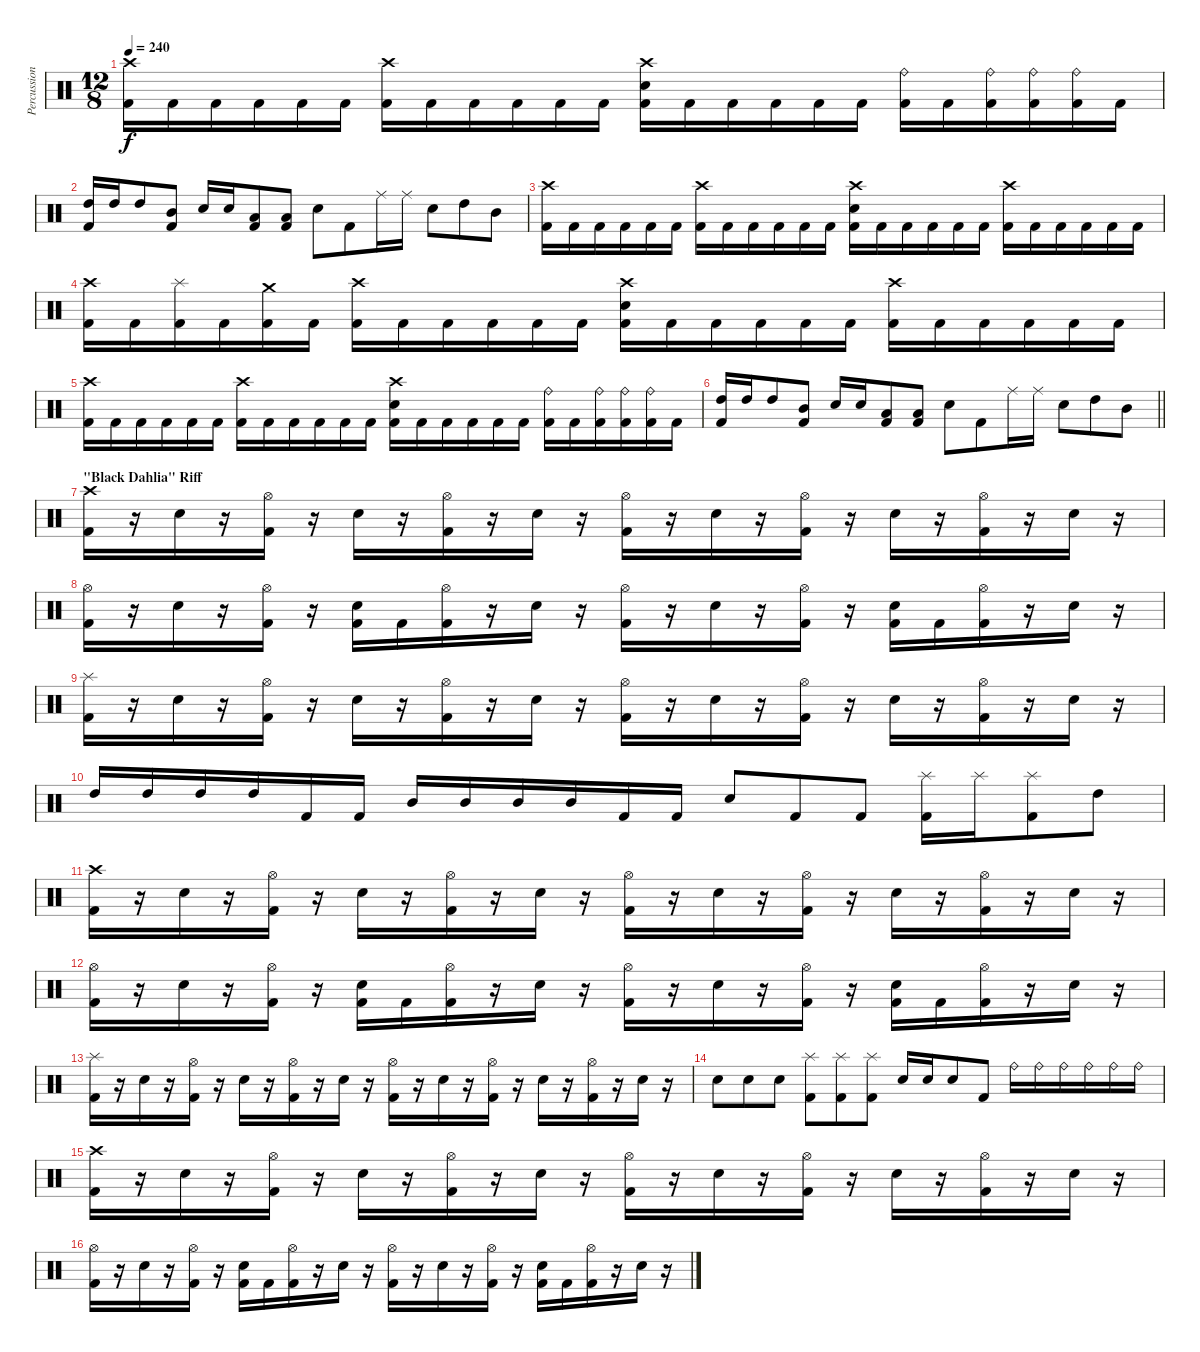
\track ("Percussion" "Percussion") {instrument percussion}
\staff {score}
\articulation defaults
\ts (12 8)
\tempo 240
\clef neutral
\ks c
("Crash high (hit)" "Kick (hit) 2").16{dy f} "Kick (hit) 2".16 "Kick (hit) 2".16 "Kick (hit) 2".16 "Kick (hit) 2".16 "Kick (hit) 2".16 ("Crash high (hit)" "Kick (hit) 2").16 "Kick (hit) 2".16 "Kick (hit) 2".16 "Kick (hit) 2".16 "Kick (hit) 2".16 "Kick (hit) 2".16 ("Crash high (hit)" "Electric Snare (hit)" "Kick (hit) 2").16 "Kick (hit) 2".16 "Kick (hit) 2".16 "Kick (hit) 2".16 "Kick (hit) 2".16 "Kick (hit) 2".16 ("Ride (bell)" "Kick (hit) 2").16 "Kick (hit) 2".16 ("Ride (bell)" "Kick (hit) 2").16 ("Ride (bell)" "Kick (hit) 2").16 ("Ride (bell)" "Kick (hit) 2").16 "Kick (hit) 2".16 |
("High Tom (hit)" "Kick (hit) 2").16 "High Tom (hit)".16 "High Tom (hit)".8 ("Mid Tom (hit)" "Kick (hit) 2").8 "Electric Snare (hit)".16 "Electric Snare (hit)".16 ("Low Tom (hit)" "Kick (hit) 2").8 ("Low Tom (hit)" "Kick (hit) 2").8 "Electric Snare (hit)".8 "Kick (hit) 2".8 "Ride (middle)".16 "Ride (middle)".16 "Electric Snare (hit)".8 "High Tom (hit)".8 "Mid Tom (hit)".8 |
("Crash high (hit)" "Kick (hit) 2").16 "Kick (hit) 2".16 "Kick (hit) 2".16 "Kick (hit) 2".16 "Kick (hit) 2".16 "Kick (hit) 2".16 ("Crash high (hit)" "Kick (hit) 2").16 "Kick (hit) 2".16 "Kick (hit) 2".16 "Kick (hit) 2".16 "Kick (hit) 2".16 "Kick (hit) 2".16 ("Crash high (hit)" "Electric Snare (hit)" "Kick (hit) 2").16 "Kick (hit) 2".16 "Kick (hit) 2".16 "Kick (hit) 2".16 "Kick (hit) 2".16 "Kick (hit) 2".16 ("Crash high (hit)" "Kick (hit) 2").16 "Kick (hit) 2".16 "Kick (hit) 2".16 "Kick (hit) 2".16 "Kick (hit) 2".16 "Kick (hit) 2".16 |
("Crash high (hit)" "Kick (hit) 2").16 "Kick (hit) 2".16 ("Splash (hit)" "Kick (hit) 2").16 "Kick (hit) 2".16 ("Crash medium (hit)" "Kick (hit) 2").16 "Kick (hit) 2".16 ("Crash high (hit)" "Kick (hit) 2").16 "Kick (hit) 2".16 "Kick (hit) 2".16 "Kick (hit) 2".16 "Kick (hit) 2".16 "Kick (hit) 2".16 ("Crash high (hit)" "Electric Snare (hit)" "Kick (hit) 2").16 "Kick (hit) 2".16 "Kick (hit) 2".16 "Kick (hit) 2".16 "Kick (hit) 2".16 "Kick (hit) 2".16 ("Crash high (hit)" "Kick (hit) 2").16 "Kick (hit) 2".16 "Kick (hit) 2".16 "Kick (hit) 2".16 "Kick (hit) 2".16 "Kick (hit) 2".16 |
("Crash high (hit)" "Kick (hit) 2").16 "Kick (hit) 2".16 "Kick (hit) 2".16 "Kick (hit) 2".16 "Kick (hit) 2".16 "Kick (hit) 2".16 ("Crash high (hit)" "Kick (hit) 2").16 "Kick (hit) 2".16 "Kick (hit) 2".16 "Kick (hit) 2".16 "Kick (hit) 2".16 "Kick (hit) 2".16 ("Crash high (hit)" "Electric Snare (hit)" "Kick (hit) 2").16 "Kick (hit) 2".16 "Kick (hit) 2".16 "Kick (hit) 2".16 "Kick (hit) 2".16 "Kick (hit) 2".16 ("Ride (bell)" "Kick (hit) 2").16 "Kick (hit) 2".16 ("Ride (bell)" "Kick (hit) 2").16 ("Ride (bell)" "Kick (hit) 2").16 ("Ride (bell)" "Kick (hit) 2").16 "Kick (hit) 2".16 |
\barLineRight lightlight
("High Tom (hit)" "Kick (hit) 2").16 "High Tom (hit)".16 "High Tom (hit)".8 ("Mid Tom (hit)" "Kick (hit) 2").8 "Electric Snare (hit)".16 "Electric Snare (hit)".16 ("Low Tom (hit)" "Kick (hit) 2").8 ("Low Tom (hit)" "Kick (hit) 2").8 "Electric Snare (hit)".8 "Kick (hit) 2".8 "Ride (middle)".16 "Ride (middle)".16 "Electric Snare (hit)".8 "High Tom (hit)".8 "Mid Tom (hit)".8 |
\section ("" "\"Black Dahlia\" Riff")
("Crash high (hit)" "Kick (hit) 2").16 r.16 "Electric Snare (hit)".16 r.16 ("Hi-Hat (open)" "Kick (hit) 2").16 r.16 "Electric Snare (hit)".16 r.16 ("Hi-Hat (open)" "Kick (hit) 2").16 r.16 "Electric Snare (hit)".16 r.16 ("Hi-Hat (open)" "Kick (hit) 2").16 r.16 "Electric Snare (hit)".16 r.16 ("Hi-Hat (open)" "Kick (hit) 2").16 r.16 "Electric Snare (hit)".16 r.16 ("Hi-Hat (open)" "Kick (hit) 2").16 r.16 "Electric Snare (hit)".16 r.16 |
("Hi-Hat (open)" "Kick (hit) 2").16 r.16 "Electric Snare (hit)".16 r.16 ("Hi-Hat (open)" "Kick (hit) 2").16 r.16 ("Electric Snare (hit)" "Kick (hit) 2").16 "Kick (hit) 2".16 ("Hi-Hat (open)" "Kick (hit) 2").16 r.16 "Electric Snare (hit)".16 r.16 ("Hi-Hat (open)" "Kick (hit) 2").16 r.16 "Electric Snare (hit)".16 r.16 ("Hi-Hat (open)" "Kick (hit) 2").16 r.16 ("Electric Snare (hit)" "Kick (hit) 2").16 "Kick (hit) 2".16 ("Hi-Hat (open)" "Kick (hit) 2").16 r.16 "Electric Snare (hit)".16 r.16 |
("Splash (hit)" "Kick (hit) 2").16 r.16 "Electric Snare (hit)".16 r.16 ("Hi-Hat (open)" "Kick (hit) 2").16 r.16 "Electric Snare (hit)".16 r.16 ("Hi-Hat (open)" "Kick (hit) 2").16 r.16 "Electric Snare (hit)".16 r.16 ("Hi-Hat (open)" "Kick (hit) 2").16 r.16 "Electric Snare (hit)".16 r.16 ("Hi-Hat (open)" "Kick (hit) 2").16 r.16 "Electric Snare (hit)".16 r.16 ("Hi-Hat (open)" "Kick (hit) 2").16 r.16 "Electric Snare (hit)".16 r.16 |
"High Tom (hit)".16 "High Tom (hit)".16 "High Tom (hit)".16 "High Tom (hit)".16 "Kick (hit) 2".16 "Kick (hit) 2".16 "Mid Tom (hit)".16 "Mid Tom (hit)".16 "Mid Tom (hit)".16 "Mid Tom (hit)".16 "Kick (hit) 2".16 "Kick (hit) 2".16 "Electric Snare (hit)".8 "Kick (hit) 2".8 "Kick (hit) 2".8 ("Splash (hit)" "Kick (hit) 2").16 "Splash (hit)".16 ("Splash (hit)" "Kick (hit) 2").8 "High Tom (hit)".8 |
("Crash high (hit)" "Kick (hit) 2").16 r.16 "Electric Snare (hit)".16 r.16 ("Hi-Hat (open)" "Kick (hit) 2").16 r.16 "Electric Snare (hit)".16 r.16 ("Hi-Hat (open)" "Kick (hit) 2").16 r.16 "Electric Snare (hit)".16 r.16 ("Hi-Hat (open)" "Kick (hit) 2").16 r.16 "Electric Snare (hit)".16 r.16 ("Hi-Hat (open)" "Kick (hit) 2").16 r.16 "Electric Snare (hit)".16 r.16 ("Hi-Hat (open)" "Kick (hit) 2").16 r.16 "Electric Snare (hit)".16 r.16 |
("Hi-Hat (open)" "Kick (hit) 2").16 r.16 "Electric Snare (hit)".16 r.16 ("Hi-Hat (open)" "Kick (hit) 2").16 r.16 ("Electric Snare (hit)" "Kick (hit) 2").16 "Kick (hit) 2".16 ("Hi-Hat (open)" "Kick (hit) 2").16 r.16 "Electric Snare (hit)".16 r.16 ("Hi-Hat (open)" "Kick (hit) 2").16 r.16 "Electric Snare (hit)".16 r.16 ("Hi-Hat (open)" "Kick (hit) 2").16 r.16 ("Electric Snare (hit)" "Kick (hit) 2").16 "Kick (hit) 2".16 ("Hi-Hat (open)" "Kick (hit) 2").16 r.16 "Electric Snare (hit)".16 r.16 |
("Splash (hit)" "Kick (hit) 2").16 r.16 "Electric Snare (hit)".16 r.16 ("Hi-Hat (open)" "Kick (hit) 2").16 r.16 "Electric Snare (hit)".16 r.16 ("Hi-Hat (open)" "Kick (hit) 2").16 r.16 "Electric Snare (hit)".16 r.16 ("Hi-Hat (open)" "Kick (hit) 2").16 r.16 "Electric Snare (hit)".16 r.16 ("Hi-Hat (open)" "Kick (hit) 2").16 r.16 "Electric Snare (hit)".16 r.16 ("Hi-Hat (open)" "Kick (hit) 2").16 r.16 "Electric Snare (hit)".16 r.16 |
"Electric Snare (hit)".8 "Electric Snare (hit)".8 "Electric Snare (hit)".8 ("Splash (hit)" "Kick (hit) 2").8 ("Splash (hit)" "Kick (hit) 2").8 ("Splash (hit)" "Kick (hit) 2").8 "Electric Snare (hit)".16 "Electric Snare (hit)".16 "Electric Snare (hit)".8 "Kick (hit) 2".8 "Ride (bell)".16 "Ride (bell)".16 "Ride (bell)".16 "Ride (bell)".16 "Ride (bell)".16 "Ride (bell)".16 |
("Crash high (hit)" "Kick (hit) 2").16 r.16 "Electric Snare (hit)".16 r.16 ("Hi-Hat (open)" "Kick (hit) 2").16 r.16 "Electric Snare (hit)".16 r.16 ("Hi-Hat (open)" "Kick (hit) 2").16 r.16 "Electric Snare (hit)".16 r.16 ("Hi-Hat (open)" "Kick (hit) 2").16 r.16 "Electric Snare (hit)".16 r.16 ("Hi-Hat (open)" "Kick (hit) 2").16 r.16 "Electric Snare (hit)".16 r.16 ("Hi-Hat (open)" "Kick (hit) 2").16 r.16 "Electric Snare (hit)".16 r.16 |
("Hi-Hat (open)" "Kick (hit) 2").16 r.16 "Electric Snare (hit)".16 r.16 ("Hi-Hat (open)" "Kick (hit) 2").16 r.16 ("Electric Snare (hit)" "Kick (hit) 2").16 "Kick (hit) 2".16 ("Hi-Hat (open)" "Kick (hit) 2").16 r.16 "Electric Snare (hit)".16 r.16 ("Hi-Hat (open)" "Kick (hit) 2").16 r.16 "Electric Snare (hit)".16 r.16 ("Hi-Hat (open)" "Kick (hit) 2").16 r.16 ("Electric Snare (hit)" "Kick (hit) 2").16 "Kick (hit) 2".16 ("Hi-Hat (open)" "Kick (hit) 2").16 r.16 "Electric Snare (hit)".16 r.16
